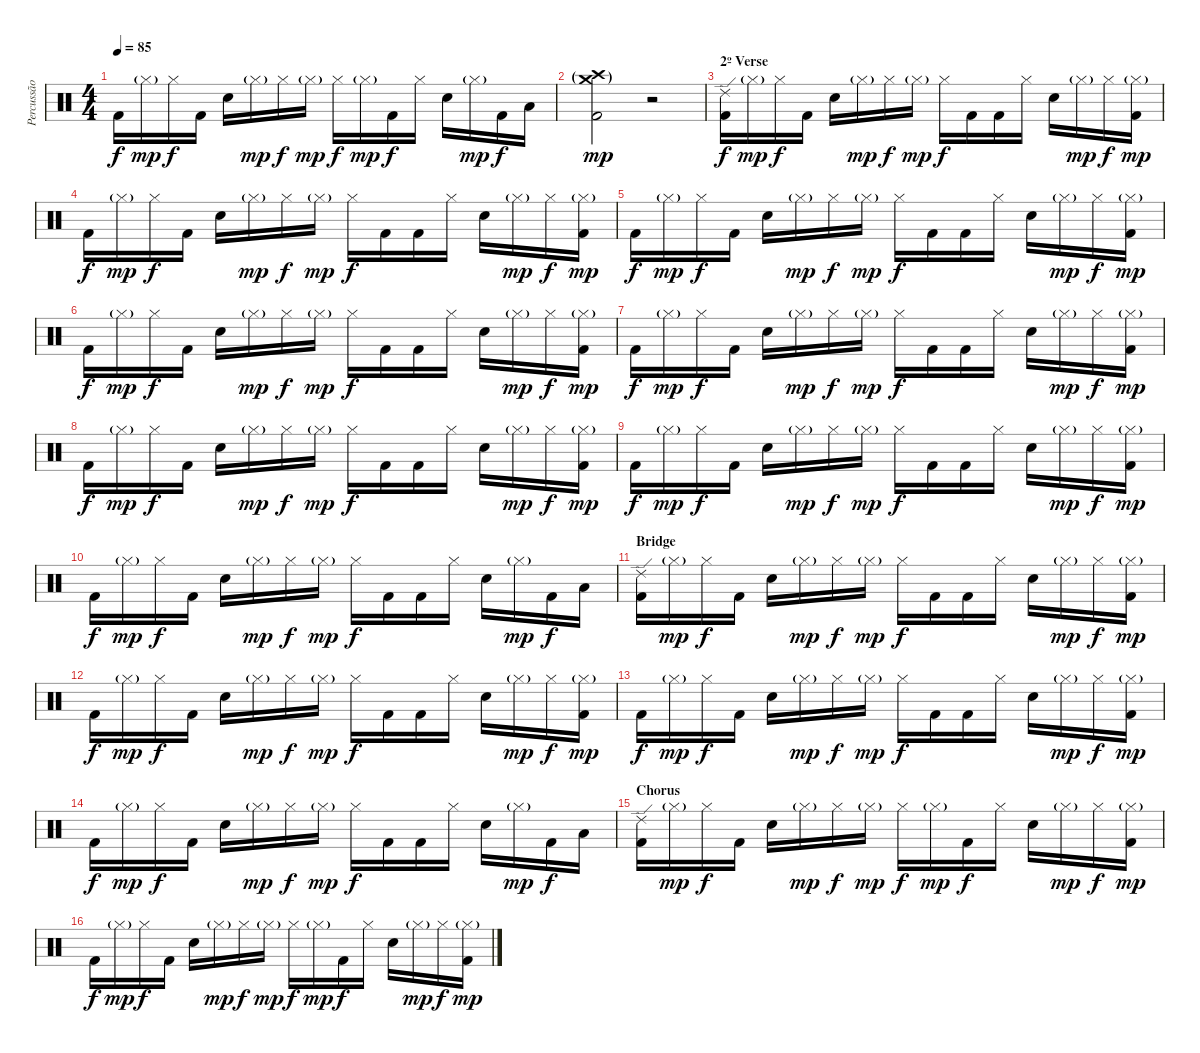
\track ("Percussão" "Percussão") {instrument percussion}
\staff {score}
\articulation defaults
\ts (4 4)
\tempo 85
\clef neutral
\ks c "Kick (hit) 2".16{dy f} "Hi-Hat (closed)"{g}.16{dy mp} "Hi-Hat (closed)".16{dy f} "Kick (hit) 2".16 "Electric Snare (hit)".16 "Hi-Hat (closed)"{g}.16{dy mp} "Hi-Hat (closed)".16{dy f} "Hi-Hat (closed)"{g}.16{dy mp} "Hi-Hat (closed)".16{dy f} "Hi-Hat (closed)"{g}.16{dy mp} "Kick (hit) 2".16{dy f} "Hi-Hat (closed)".16 "Electric Snare (hit)".16 "Hi-Hat (closed)"{g}.16{dy mp} "Kick (hit) 2".16{dy f} "Low Tom (hit)".16
|
("Crash medium (hit)"{g} "Crash high (hit)"{g} "Kick (hit) 2").2{dy mp} r.2 |
\section ("" "2º Verse")
("Ride (edge) 2" "Kick (hit) 2").16{dy f} "Hi-Hat (closed)"{g}.16{dy mp} "Hi-Hat (closed)".16{dy f} "Kick (hit) 2".16 "Electric Snare (hit)".16 "Hi-Hat (closed)"{g}.16{dy mp} "Hi-Hat (closed)".16{dy f} "Hi-Hat (closed)"{g}.16{dy mp} "Hi-Hat (closed)".16{dy f} "Kick (hit) 2".16 "Kick (hit) 2".16 "Hi-Hat (closed)".16 "Electric Snare (hit)".16 "Hi-Hat (closed)"{g}.16{dy mp} "Hi-Hat (closed)".16{dy f} ("Hi-Hat (closed)"{g} "Kick (hit) 2").16{dy mp} |
"Kick (hit) 2".16{dy f} "Hi-Hat (closed)"{g}.16{dy mp} "Hi-Hat (closed)".16{dy f} "Kick (hit) 2".16 "Electric Snare (hit)".16 "Hi-Hat (closed)"{g}.16{dy mp} "Hi-Hat (closed)".16{dy f} "Hi-Hat (closed)"{g}.16{dy mp} "Hi-Hat (closed)".16{dy f} "Kick (hit) 2".16 "Kick (hit) 2".16 "Hi-Hat (closed)".16 "Electric Snare (hit)".16 "Hi-Hat (closed)"{g}.16{dy mp} "Hi-Hat (closed)".16{dy f} ("Hi-Hat (closed)"{g} "Kick (hit) 2").16{dy mp} |
"Kick (hit) 2".16{dy f} "Hi-Hat (closed)"{g}.16{dy mp} "Hi-Hat (closed)".16{dy f} "Kick (hit) 2".16 "Electric Snare (hit)".16 "Hi-Hat (closed)"{g}.16{dy mp} "Hi-Hat (closed)".16{dy f} "Hi-Hat (closed)"{g}.16{dy mp} "Hi-Hat (closed)".16{dy f} "Kick (hit) 2".16 "Kick (hit) 2".16 "Hi-Hat (closed)".16 "Electric Snare (hit)".16 "Hi-Hat (closed)"{g}.16{dy mp} "Hi-Hat (closed)".16{dy f} ("Hi-Hat (closed)"{g} "Kick (hit) 2").16{dy mp} |
"Kick (hit) 2".16{dy f} "Hi-Hat (closed)"{g}.16{dy mp} "Hi-Hat (closed)".16{dy f} "Kick (hit) 2".16 "Electric Snare (hit)".16 "Hi-Hat (closed)"{g}.16{dy mp} "Hi-Hat (closed)".16{dy f} "Hi-Hat (closed)"{g}.16{dy mp} "Hi-Hat (closed)".16{dy f} "Kick (hit) 2".16 "Kick (hit) 2".16 "Hi-Hat (closed)".16 "Electric Snare (hit)".16 "Hi-Hat (closed)"{g}.16{dy mp} "Hi-Hat (closed)".16{dy f} ("Hi-Hat (closed)"{g} "Kick (hit) 2").16{dy mp} |
"Kick (hit) 2".16{dy f} "Hi-Hat (closed)"{g}.16{dy mp} "Hi-Hat (closed)".16{dy f} "Kick (hit) 2".16 "Electric Snare (hit)".16 "Hi-Hat (closed)"{g}.16{dy mp} "Hi-Hat (closed)".16{dy f} "Hi-Hat (closed)"{g}.16{dy mp} "Hi-Hat (closed)".16{dy f} "Kick (hit) 2".16 "Kick (hit) 2".16 "Hi-Hat (closed)".16 "Electric Snare (hit)".16 "Hi-Hat (closed)"{g}.16{dy mp} "Hi-Hat (closed)".16{dy f} ("Hi-Hat (closed)"{g} "Kick (hit) 2").16{dy mp} |
"Kick (hit) 2".16{dy f} "Hi-Hat (closed)"{g}.16{dy mp} "Hi-Hat (closed)".16{dy f} "Kick (hit) 2".16 "Electric Snare (hit)".16 "Hi-Hat (closed)"{g}.16{dy mp} "Hi-Hat (closed)".16{dy f} "Hi-Hat (closed)"{g}.16{dy mp} "Hi-Hat (closed)".16{dy f} "Kick (hit) 2".16 "Kick (hit) 2".16 "Hi-Hat (closed)".16 "Electric Snare (hit)".16 "Hi-Hat (closed)"{g}.16{dy mp} "Hi-Hat (closed)".16{dy f} ("Hi-Hat (closed)"{g} "Kick (hit) 2").16{dy mp} |
"Kick (hit) 2".16{dy f} "Hi-Hat (closed)"{g}.16{dy mp} "Hi-Hat (closed)".16{dy f} "Kick (hit) 2".16 "Electric Snare (hit)".16 "Hi-Hat (closed)"{g}.16{dy mp} "Hi-Hat (closed)".16{dy f} "Hi-Hat (closed)"{g}.16{dy mp} "Hi-Hat (closed)".16{dy f} "Kick (hit) 2".16 "Kick (hit) 2".16 "Hi-Hat (closed)".16 "Electric Snare (hit)".16 "Hi-Hat (closed)"{g}.16{dy mp} "Hi-Hat (closed)".16{dy f} ("Hi-Hat (closed)"{g} "Kick (hit) 2").16{dy mp} |
"Kick (hit) 2".16{dy f} "Hi-Hat (closed)"{g}.16{dy mp} "Hi-Hat (closed)".16{dy f} "Kick (hit) 2".16 "Electric Snare (hit)".16 "Hi-Hat (closed)"{g}.16{dy mp} "Hi-Hat (closed)".16{dy f} "Hi-Hat (closed)"{g}.16{dy mp} "Hi-Hat (closed)".16{dy f} "Kick (hit) 2".16 "Kick (hit) 2".16 "Hi-Hat (closed)".16 "Electric Snare (hit)".16 "Hi-Hat (closed)"{g}.16{dy mp} "Kick (hit) 2".16{dy f} "Low Tom (hit)".16 |
\section ("" "Bridge")
("Ride (edge) 2" "Kick (hit) 2").16 "Hi-Hat (closed)"{g}.16{dy mp} "Hi-Hat (closed)".16{dy f} "Kick (hit) 2".16 "Electric Snare (hit)".16 "Hi-Hat (closed)"{g}.16{dy mp} "Hi-Hat (closed)".16{dy f} "Hi-Hat (closed)"{g}.16{dy mp} "Hi-Hat (closed)".16{dy f} "Kick (hit) 2".16 "Kick (hit) 2".16 "Hi-Hat (closed)".16 "Electric Snare (hit)".16 "Hi-Hat (closed)"{g}.16{dy mp} "Hi-Hat (closed)".16{dy f} ("Hi-Hat (closed)"{g} "Kick (hit) 2").16{dy mp} |
"Kick (hit) 2".16{dy f} "Hi-Hat (closed)"{g}.16{dy mp} "Hi-Hat (closed)".16{dy f} "Kick (hit) 2".16 "Electric Snare (hit)".16 "Hi-Hat (closed)"{g}.16{dy mp} "Hi-Hat (closed)".16{dy f} "Hi-Hat (closed)"{g}.16{dy mp} "Hi-Hat (closed)".16{dy f} "Kick (hit) 2".16 "Kick (hit) 2".16 "Hi-Hat (closed)".16 "Electric Snare (hit)".16 "Hi-Hat (closed)"{g}.16{dy mp} "Hi-Hat (closed)".16{dy f} ("Hi-Hat (closed)"{g} "Kick (hit) 2").16{dy mp} |
"Kick (hit) 2".16{dy f} "Hi-Hat (closed)"{g}.16{dy mp} "Hi-Hat (closed)".16{dy f} "Kick (hit) 2".16 "Electric Snare (hit)".16 "Hi-Hat (closed)"{g}.16{dy mp} "Hi-Hat (closed)".16{dy f} "Hi-Hat (closed)"{g}.16{dy mp} "Hi-Hat (closed)".16{dy f} "Kick (hit) 2".16 "Kick (hit) 2".16 "Hi-Hat (closed)".16 "Electric Snare (hit)".16 "Hi-Hat (closed)"{g}.16{dy mp} "Hi-Hat (closed)".16{dy f} ("Hi-Hat (closed)"{g} "Kick (hit) 2").16{dy mp} |
"Kick (hit) 2".16{dy f} "Hi-Hat (closed)"{g}.16{dy mp} "Hi-Hat (closed)".16{dy f} "Kick (hit) 2".16 "Electric Snare (hit)".16 "Hi-Hat (closed)"{g}.16{dy mp} "Hi-Hat (closed)".16{dy f} "Hi-Hat (closed)"{g}.16{dy mp} "Hi-Hat (closed)".16{dy f} "Kick (hit) 2".16 "Kick (hit) 2".16 "Hi-Hat (closed)".16 "Electric Snare (hit)".16 "Hi-Hat (closed)"{g}.16{dy mp} "Kick (hit) 2".16{dy f} "Low Tom (hit)".16 |
\section ("" "Chorus")
("Ride (edge) 2" "Kick (hit) 2").16 "Hi-Hat (closed)"{g}.16{dy mp} "Hi-Hat (closed)".16{dy f} "Kick (hit) 2".16 "Electric Snare (hit)".16 "Hi-Hat (closed)"{g}.16{dy mp} "Hi-Hat (closed)".16{dy f} "Hi-Hat (closed)"{g}.16{dy mp} "Hi-Hat (closed)".16{dy f} "Hi-Hat (closed)"{g}.16{dy mp} "Kick (hit) 2".16{dy f} "Hi-Hat (closed)".16 "Electric Snare (hit)".16 "Hi-Hat (closed)"{g}.16{dy mp} "Hi-Hat (closed)".16{dy f} ("Hi-Hat (closed)"{g} "Kick (hit) 2").16{dy mp} |
"Kick (hit) 2".16{dy f} "Hi-Hat (closed)"{g}.16{dy mp} "Hi-Hat (closed)".16{dy f} "Kick (hit) 2".16 "Electric Snare (hit)".16 "Hi-Hat (closed)"{g}.16{dy mp} "Hi-Hat (closed)".16{dy f} "Hi-Hat (closed)"{g}.16{dy mp} "Hi-Hat (closed)".16{dy f} "Hi-Hat (closed)"{g}.16{dy mp} "Kick (hit) 2".16{dy f} "Hi-Hat (closed)".16 "Electric Snare (hit)".16 "Hi-Hat (closed)"{g}.16{dy mp} "Hi-Hat (closed)".16{dy f} ("Hi-Hat (closed)"{g} "Kick (hit) 2").16{dy mp}
